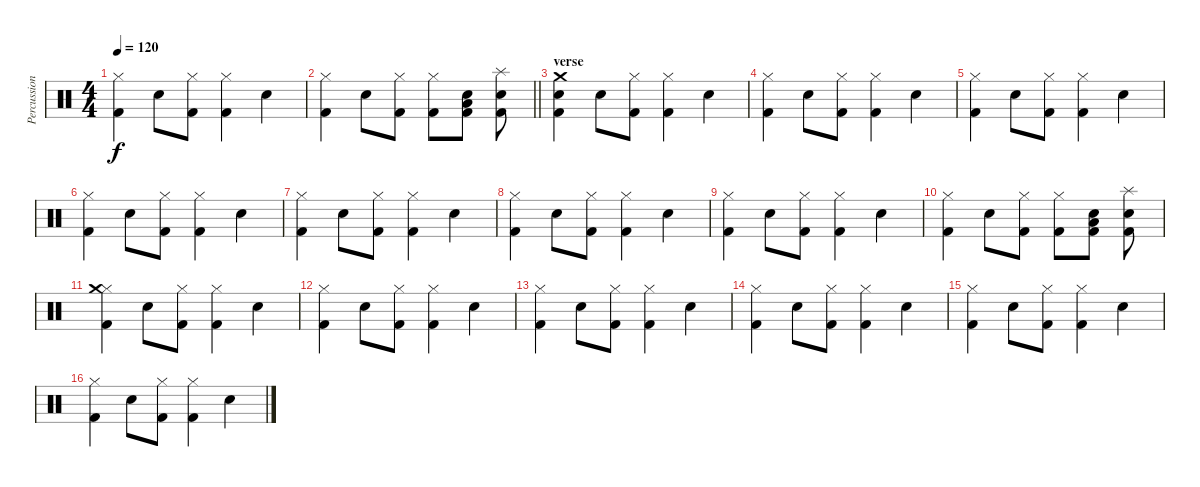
\track ("Percussion" "Percussion") {instrument percussion}
\staff {score}
\articulation defaults
\ts (4 4)
\tempo 120
\clef neutral
\ks c
("Kick (hit) 2" "Hi-Hat (closed)").4{dy f} "Electric Snare (hit)".8 ("Kick (hit) 2" "Hi-Hat (closed)").8 ("Kick (hit) 2" "Hi-Hat (closed)").4 "Electric Snare (hit)".4 |
\barLineRight lightlight
("Kick (hit) 2" "Hi-Hat (closed)").4 "Electric Snare (hit)".8 ("Kick (hit) 2" "Hi-Hat (closed)").8 ("Kick (hit) 2" "Hi-Hat (closed)").8 ("Kick (hit) 2" "Electric Snare (hit)" "Low Floor Tom (hit)").8 ("Kick (hit) 2" "Electric Snare (hit)" "Splash (hit)").8 |
\section ("" "verse")
("Kick (hit) 2" "Electric Snare (hit)" "Crash medium (hit)").4 "Electric Snare (hit)".8 ("Kick (hit) 2" "Hi-Hat (closed)").8 ("Kick (hit) 2" "Hi-Hat (closed)").4 "Electric Snare (hit)".4 |
("Kick (hit) 2" "Hi-Hat (closed)").4 "Electric Snare (hit)".8 ("Kick (hit) 2" "Hi-Hat (closed)").8 ("Kick (hit) 2" "Hi-Hat (closed)").4 "Electric Snare (hit)".4 |
("Kick (hit) 2" "Hi-Hat (closed)").4 "Electric Snare (hit)".8 ("Kick (hit) 2" "Hi-Hat (closed)").8 ("Kick (hit) 2" "Hi-Hat (closed)").4 "Electric Snare (hit)".4 |
("Kick (hit) 2" "Hi-Hat (closed)").4 "Electric Snare (hit)".8 ("Kick (hit) 2" "Hi-Hat (closed)").8 ("Kick (hit) 2" "Hi-Hat (closed)").4 "Electric Snare (hit)".4 |
("Kick (hit) 2" "Hi-Hat (closed)").4 "Electric Snare (hit)".8 ("Kick (hit) 2" "Hi-Hat (closed)").8 ("Kick (hit) 2" "Hi-Hat (closed)").4 "Electric Snare (hit)".4 |
("Kick (hit) 2" "Hi-Hat (closed)").4 "Electric Snare (hit)".8 ("Kick (hit) 2" "Hi-Hat (closed)").8 ("Kick (hit) 2" "Hi-Hat (closed)").4 "Electric Snare (hit)".4 |
("Kick (hit) 2" "Hi-Hat (closed)").4 "Electric Snare (hit)".8 ("Kick (hit) 2" "Hi-Hat (closed)").8 ("Kick (hit) 2" "Hi-Hat (closed)").4 "Electric Snare (hit)".4 |
("Kick (hit) 2" "Hi-Hat (closed)").4 "Electric Snare (hit)".8 ("Kick (hit) 2" "Hi-Hat (closed)").8 ("Kick (hit) 2" "Hi-Hat (closed)").8 ("Kick (hit) 2" "Electric Snare (hit)" "Low Floor Tom (hit)").8 ("Kick (hit) 2" "Electric Snare (hit)" "Splash (hit)").8 |
("Kick (hit) 2" "Hi-Hat (closed)" "Crash medium (hit)").4 "Electric Snare (hit)".8 ("Kick (hit) 2" "Hi-Hat (closed)").8 ("Kick (hit) 2" "Hi-Hat (closed)").4 "Electric Snare (hit)".4 |
("Kick (hit) 2" "Hi-Hat (closed)").4 "Electric Snare (hit)".8 ("Kick (hit) 2" "Hi-Hat (closed)").8 ("Kick (hit) 2" "Hi-Hat (closed)").4 "Electric Snare (hit)".4 |
("Kick (hit) 2" "Hi-Hat (closed)").4 "Electric Snare (hit)".8 ("Kick (hit) 2" "Hi-Hat (closed)").8 ("Kick (hit) 2" "Hi-Hat (closed)").4 "Electric Snare (hit)".4 |
("Kick (hit) 2" "Hi-Hat (closed)").4 "Electric Snare (hit)".8 ("Kick (hit) 2" "Hi-Hat (closed)").8 ("Kick (hit) 2" "Hi-Hat (closed)").4 "Electric Snare (hit)".4 |
("Kick (hit) 2" "Hi-Hat (closed)").4 "Electric Snare (hit)".8 ("Kick (hit) 2" "Hi-Hat (closed)").8 ("Kick (hit) 2" "Hi-Hat (closed)").4 "Electric Snare (hit)".4 |
("Kick (hit) 2" "Hi-Hat (closed)").4 "Electric Snare (hit)".8 ("Kick (hit) 2" "Hi-Hat (closed)").8 ("Kick (hit) 2" "Hi-Hat (closed)").4 "Electric Snare (hit)".4
